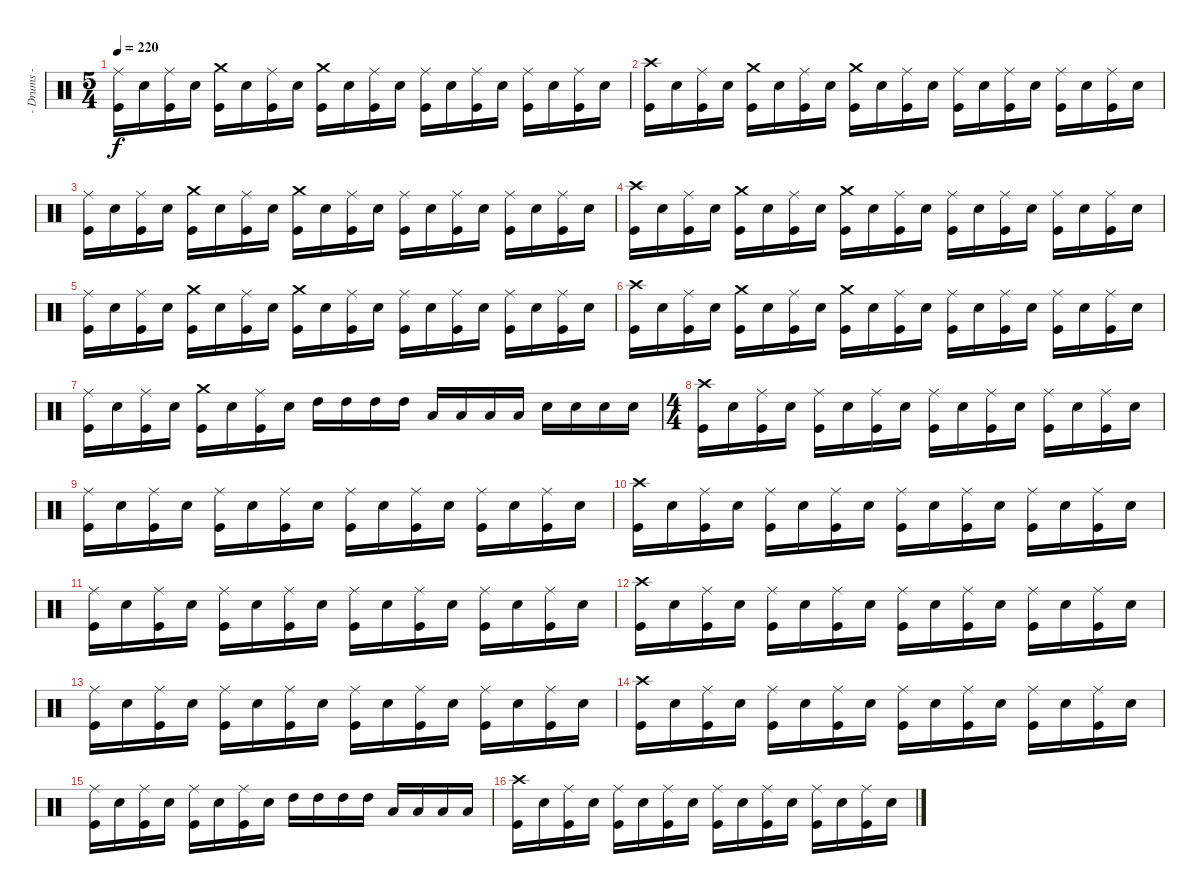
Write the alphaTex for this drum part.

\track ("- Drums -" "- Drums -") {instrument percussion}
\staff {score}
\articulation defaults
\ts (5 4)
\tempo 220
\clef neutral
\ks c
("Ride (middle)" "Kick (hit)").16{dy f} "Electric Snare (hit)".16 ("Ride (middle)" "Kick (hit)").16 "Electric Snare (hit)".16 ("Crash medium (hit)" "Kick (hit)").16 "Electric Snare (hit)".16 ("Ride (middle)" "Kick (hit)").16 "Electric Snare (hit)".16 ("Crash medium (hit)" "Kick (hit)").16 "Electric Snare (hit)".16 ("Ride (middle)" "Kick (hit)").16 "Electric Snare (hit)".16 ("Ride (middle)" "Kick (hit)").16 "Electric Snare (hit)".16 ("Ride (middle)" "Kick (hit)").16 "Electric Snare (hit)".16 ("Ride (middle)" "Kick (hit)").16 "Electric Snare (hit)".16 ("Ride (middle)" "Kick (hit)").16 "Electric Snare (hit)".16 |
("Crash high (hit)" "Kick (hit)").16 "Electric Snare (hit)".16 ("Ride (middle)" "Kick (hit)").16 "Electric Snare (hit)".16 ("Crash medium (hit)" "Kick (hit)").16 "Electric Snare (hit)".16 ("Ride (middle)" "Kick (hit)").16 "Electric Snare (hit)".16 ("Crash medium (hit)" "Kick (hit)").16 "Electric Snare (hit)".16 ("Ride (middle)" "Kick (hit)").16 "Electric Snare (hit)".16 ("Ride (middle)" "Kick (hit)").16 "Electric Snare (hit)".16 ("Ride (middle)" "Kick (hit)").16 "Electric Snare (hit)".16 ("Ride (middle)" "Kick (hit)").16 "Electric Snare (hit)".16 ("Ride (middle)" "Kick (hit)").16 "Electric Snare (hit)".16 |
("Ride (middle)" "Kick (hit)").16 "Electric Snare (hit)".16 ("Ride (middle)" "Kick (hit)").16 "Electric Snare (hit)".16 ("Crash medium (hit)" "Kick (hit)").16 "Electric Snare (hit)".16 ("Ride (middle)" "Kick (hit)").16 "Electric Snare (hit)".16 ("Crash medium (hit)" "Kick (hit)").16 "Electric Snare (hit)".16 ("Ride (middle)" "Kick (hit)").16 "Electric Snare (hit)".16 ("Ride (middle)" "Kick (hit)").16 "Electric Snare (hit)".16 ("Ride (middle)" "Kick (hit)").16 "Electric Snare (hit)".16 ("Ride (middle)" "Kick (hit)").16 "Electric Snare (hit)".16 ("Ride (middle)" "Kick (hit)").16 "Electric Snare (hit)".16 |
("Crash high (hit)" "Kick (hit)").16 "Electric Snare (hit)".16 ("Ride (middle)" "Kick (hit)").16 "Electric Snare (hit)".16 ("Crash medium (hit)" "Kick (hit)").16 "Electric Snare (hit)".16 ("Ride (middle)" "Kick (hit)").16 "Electric Snare (hit)".16 ("Crash medium (hit)" "Kick (hit)").16 "Electric Snare (hit)".16 ("Ride (middle)" "Kick (hit)").16 "Electric Snare (hit)".16 ("Ride (middle)" "Kick (hit)").16 "Electric Snare (hit)".16 ("Ride (middle)" "Kick (hit)").16 "Electric Snare (hit)".16 ("Ride (middle)" "Kick (hit)").16 "Electric Snare (hit)".16 ("Ride (middle)" "Kick (hit)").16 "Electric Snare (hit)".16 |
("Ride (middle)" "Kick (hit)").16 "Electric Snare (hit)".16 ("Ride (middle)" "Kick (hit)").16 "Electric Snare (hit)".16 ("Crash medium (hit)" "Kick (hit)").16 "Electric Snare (hit)".16 ("Ride (middle)" "Kick (hit)").16 "Electric Snare (hit)".16 ("Crash medium (hit)" "Kick (hit)").16 "Electric Snare (hit)".16 ("Ride (middle)" "Kick (hit)").16 "Electric Snare (hit)".16 ("Ride (middle)" "Kick (hit)").16 "Electric Snare (hit)".16 ("Ride (middle)" "Kick (hit)").16 "Electric Snare (hit)".16 ("Ride (middle)" "Kick (hit)").16 "Electric Snare (hit)".16 ("Ride (middle)" "Kick (hit)").16 "Electric Snare (hit)".16 |
("Crash high (hit)" "Kick (hit)").16 "Electric Snare (hit)".16 ("Ride (middle)" "Kick (hit)").16 "Electric Snare (hit)".16 ("Crash medium (hit)" "Kick (hit)").16 "Electric Snare (hit)".16 ("Ride (middle)" "Kick (hit)").16 "Electric Snare (hit)".16 ("Crash medium (hit)" "Kick (hit)").16 "Electric Snare (hit)".16 ("Ride (middle)" "Kick (hit)").16 "Electric Snare (hit)".16 ("Ride (middle)" "Kick (hit)").16 "Electric Snare (hit)".16 ("Ride (middle)" "Kick (hit)").16 "Electric Snare (hit)".16 ("Ride (middle)" "Kick (hit)").16 "Electric Snare (hit)".16 ("Ride (middle)" "Kick (hit)").16 "Electric Snare (hit)".16 |
("Ride (middle)" "Kick (hit)").16 "Electric Snare (hit)".16 ("Ride (middle)" "Kick (hit)").16 "Electric Snare (hit)".16 ("Crash medium (hit)" "Kick (hit)").16 "Electric Snare (hit)".16 ("Ride (middle)" "Kick (hit)").16 "Electric Snare (hit)".16 "High Tom (hit)".16 "High Tom (hit)".16 "High Tom (hit)".16 "High Tom (hit)".16 "Low Tom (hit)".16 "Low Tom (hit)".16 "Low Floor Tom (hit)".16 "Low Floor Tom (hit)".16 "Electric Snare (hit)".16 "Electric Snare (hit)".16 "Electric Snare (hit)".16 "Electric Snare (hit)".16 |
\ts (4 4)
("Crash high (hit)" "Kick (hit)").16 "Electric Snare (hit)".16 ("Ride (middle)" "Kick (hit)").16 "Electric Snare (hit)".16 ("Ride (middle)" "Kick (hit)").16 "Electric Snare (hit)".16 ("Ride (middle)" "Kick (hit)").16 "Electric Snare (hit)".16 ("Ride (middle)" "Kick (hit)").16 "Electric Snare (hit)".16 ("Ride (middle)" "Kick (hit)").16 "Electric Snare (hit)".16 ("Ride (middle)" "Kick (hit)").16 "Electric Snare (hit)".16 ("Ride (middle)" "Kick (hit)").16 "Electric Snare (hit)".16 |
("Ride (middle)" "Kick (hit)").16 "Electric Snare (hit)".16 ("Ride (middle)" "Kick (hit)").16 "Electric Snare (hit)".16 ("Ride (middle)" "Kick (hit)").16 "Electric Snare (hit)".16 ("Ride (middle)" "Kick (hit)").16 "Electric Snare (hit)".16 ("Ride (middle)" "Kick (hit)").16 "Electric Snare (hit)".16 ("Ride (middle)" "Kick (hit)").16 "Electric Snare (hit)".16 ("Ride (middle)" "Kick (hit)").16 "Electric Snare (hit)".16 ("Ride (middle)" "Kick (hit)").16 "Electric Snare (hit)".16 |
("Crash high (hit)" "Kick (hit)").16 "Electric Snare (hit)".16 ("Ride (middle)" "Kick (hit)").16 "Electric Snare (hit)".16 ("Ride (middle)" "Kick (hit)").16 "Electric Snare (hit)".16 ("Ride (middle)" "Kick (hit)").16 "Electric Snare (hit)".16 ("Ride (middle)" "Kick (hit)").16 "Electric Snare (hit)".16 ("Ride (middle)" "Kick (hit)").16 "Electric Snare (hit)".16 ("Ride (middle)" "Kick (hit)").16 "Electric Snare (hit)".16 ("Ride (middle)" "Kick (hit)").16 "Electric Snare (hit)".16 |
("Ride (middle)" "Kick (hit)").16 "Electric Snare (hit)".16 ("Ride (middle)" "Kick (hit)").16 "Electric Snare (hit)".16 ("Ride (middle)" "Kick (hit)").16 "Electric Snare (hit)".16 ("Ride (middle)" "Kick (hit)").16 "Electric Snare (hit)".16 ("Ride (middle)" "Kick (hit)").16 "Electric Snare (hit)".16 ("Ride (middle)" "Kick (hit)").16 "Electric Snare (hit)".16 ("Ride (middle)" "Kick (hit)").16 "Electric Snare (hit)".16 ("Ride (middle)" "Kick (hit)").16 "Electric Snare (hit)".16 |
("Crash high (hit)" "Kick (hit)").16 "Electric Snare (hit)".16 ("Ride (middle)" "Kick (hit)").16 "Electric Snare (hit)".16 ("Ride (middle)" "Kick (hit)").16 "Electric Snare (hit)".16 ("Ride (middle)" "Kick (hit)").16 "Electric Snare (hit)".16 ("Ride (middle)" "Kick (hit)").16 "Electric Snare (hit)".16 ("Ride (middle)" "Kick (hit)").16 "Electric Snare (hit)".16 ("Ride (middle)" "Kick (hit)").16 "Electric Snare (hit)".16 ("Ride (middle)" "Kick (hit)").16 "Electric Snare (hit)".16 |
("Ride (middle)" "Kick (hit)").16 "Electric Snare (hit)".16 ("Ride (middle)" "Kick (hit)").16 "Electric Snare (hit)".16 ("Ride (middle)" "Kick (hit)").16 "Electric Snare (hit)".16 ("Ride (middle)" "Kick (hit)").16 "Electric Snare (hit)".16 ("Ride (middle)" "Kick (hit)").16 "Electric Snare (hit)".16 ("Ride (middle)" "Kick (hit)").16 "Electric Snare (hit)".16 ("Ride (middle)" "Kick (hit)").16 "Electric Snare (hit)".16 ("Ride (middle)" "Kick (hit)").16 "Electric Snare (hit)".16 |
("Crash high (hit)" "Kick (hit)").16 "Electric Snare (hit)".16 ("Ride (middle)" "Kick (hit)").16 "Electric Snare (hit)".16 ("Ride (middle)" "Kick (hit)").16 "Electric Snare (hit)".16 ("Ride (middle)" "Kick (hit)").16 "Electric Snare (hit)".16 ("Ride (middle)" "Kick (hit)").16 "Electric Snare (hit)".16 ("Ride (middle)" "Kick (hit)").16 "Electric Snare (hit)".16 ("Ride (middle)" "Kick (hit)").16 "Electric Snare (hit)".16 ("Ride (middle)" "Kick (hit)").16 "Electric Snare (hit)".16 |
("Ride (middle)" "Kick (hit)").16 "Electric Snare (hit)".16 ("Ride (middle)" "Kick (hit)").16 "Electric Snare (hit)".16 ("Ride (middle)" "Kick (hit)").16 "Electric Snare (hit)".16 ("Ride (middle)" "Kick (hit)").16 "Electric Snare (hit)".16 "High Tom (hit)".16 "High Tom (hit)".16 "High Tom (hit)".16 "High Tom (hit)".16 "Low Tom (hit)".16 "Low Tom (hit)".16 "Low Tom (hit)".16 "Low Tom (hit)".16 |
("Crash high (hit)" "Kick (hit)").16 "Electric Snare (hit)".16 ("Ride (middle)" "Kick (hit)").16 "Electric Snare (hit)".16 ("Ride (middle)" "Kick (hit)").16 "Electric Snare (hit)".16 ("Ride (middle)" "Kick (hit)").16 "Electric Snare (hit)".16 ("Ride (middle)" "Kick (hit)").16 "Electric Snare (hit)".16 ("Ride (middle)" "Kick (hit)").16 "Electric Snare (hit)".16 ("Ride (middle)" "Kick (hit)").16 "Electric Snare (hit)".16 ("Ride (middle)" "Kick (hit)").16 "Electric Snare (hit)".16
